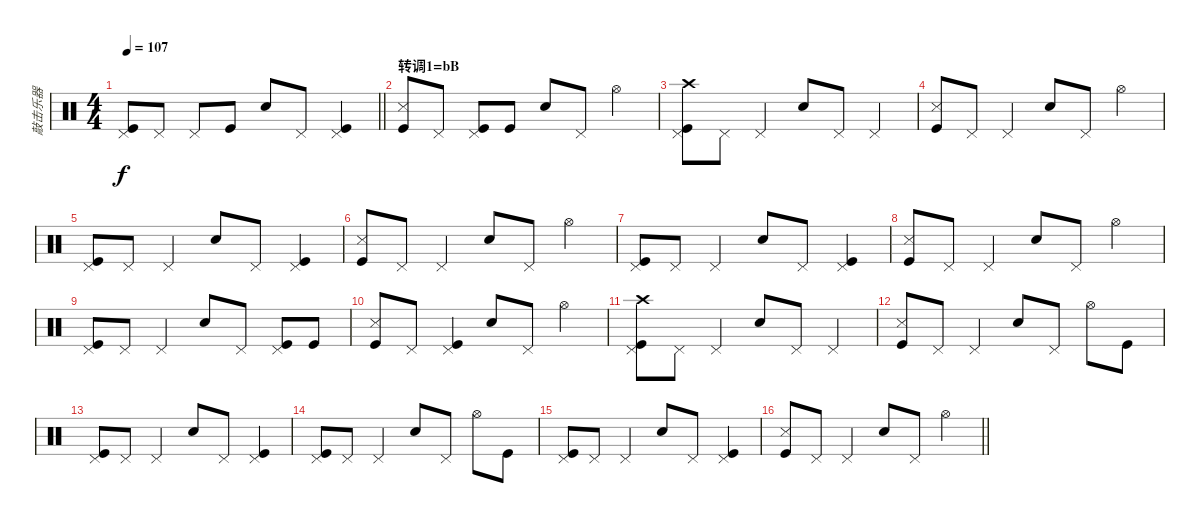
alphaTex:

\track ("敲击乐器" "敲击乐器") {instrument percussion}
\staff {score}
\articulation defaults
\ts (4 4)
\tempo 107
\clef neutral
\barLineRight lightlight
\ks c
("Kick (hit)" "Pedal Hi-Hat (hit)").8{dy f} "Pedal Hi-Hat (hit)".8 "Pedal Hi-Hat (hit)".8 "Kick (hit)".8 "Snare (hit) 2".8 "Pedal Hi-Hat (hit)".8 ("Kick (hit)" "Pedal Hi-Hat (hit)").4 |
\section ("" "转调1=bB")
("Kick (hit)" "Snare (side stick) 3").8 "Pedal Hi-Hat (hit)".8 ("Kick (hit)" "Pedal Hi-Hat (hit)").8 "Kick (hit)".8 "Snare (hit) 2".8 "Pedal Hi-Hat (hit)".8 "Hi-Hat (open)".4 |
("Crash high (hit)" "Kick (hit)" "Pedal Hi-Hat (hit)").8{volume 16} "Pedal Hi-Hat (hit)".8 "Pedal Hi-Hat (hit)".4 "Snare (hit) 2".8 "Pedal Hi-Hat (hit)".8 "Pedal Hi-Hat (hit)".4 |
("Kick (hit)" "Snare (side stick) 3").8 "Pedal Hi-Hat (hit)".8 "Pedal Hi-Hat (hit)".4 "Snare (hit) 2".8 "Pedal Hi-Hat (hit)".8 "Hi-Hat (open)".4 |
("Kick (hit)" "Pedal Hi-Hat (hit)").8 "Pedal Hi-Hat (hit)".8 "Pedal Hi-Hat (hit)".4 "Snare (hit) 2".8 "Pedal Hi-Hat (hit)".8 ("Kick (hit)" "Pedal Hi-Hat (hit)").4 |
("Kick (hit)" "Snare (side stick) 3").8 "Pedal Hi-Hat (hit)".8 "Pedal Hi-Hat (hit)".4 "Snare (hit) 2".8 "Pedal Hi-Hat (hit)".8 "Hi-Hat (open)".4 |
("Kick (hit)" "Pedal Hi-Hat (hit)").8 "Pedal Hi-Hat (hit)".8 "Pedal Hi-Hat (hit)".4 "Snare (hit) 2".8 "Pedal Hi-Hat (hit)".8 ("Kick (hit)" "Pedal Hi-Hat (hit)").4 |
("Kick (hit)" "Snare (side stick) 3").8 "Pedal Hi-Hat (hit)".8 "Pedal Hi-Hat (hit)".4 "Snare (hit) 2".8 "Pedal Hi-Hat (hit)".8 "Hi-Hat (open)".4 |
("Kick (hit)" "Pedal Hi-Hat (hit)").8 "Pedal Hi-Hat (hit)".8 "Pedal Hi-Hat (hit)".4 "Snare (hit) 2".8 "Pedal Hi-Hat (hit)".8 ("Kick (hit)" "Pedal Hi-Hat (hit)").8 "Kick (hit)".8 |
("Kick (hit)" "Snare (side stick) 3").8 "Pedal Hi-Hat (hit)".8 ("Kick (hit)" "Pedal Hi-Hat (hit)").4 "Snare (hit) 2".8 "Pedal Hi-Hat (hit)".8 "Hi-Hat (open)".4 |
("Crash high (hit)" "Kick (hit)" "Pedal Hi-Hat (hit)").8 "Pedal Hi-Hat (hit)".8 "Pedal Hi-Hat (hit)".4 "Snare (hit) 2".8 "Pedal Hi-Hat (hit)".8 "Pedal Hi-Hat (hit)".4 |
("Kick (hit)" "Snare (side stick) 3").8 "Pedal Hi-Hat (hit)".8 "Pedal Hi-Hat (hit)".4 "Snare (hit) 2".8 "Pedal Hi-Hat (hit)".8 "Hi-Hat (open)".8 "Kick (hit)".8 |
("Kick (hit)" "Pedal Hi-Hat (hit)").8 "Pedal Hi-Hat (hit)".8 "Pedal Hi-Hat (hit)".4 "Snare (hit) 2".8 "Pedal Hi-Hat (hit)".8 ("Kick (hit)" "Pedal Hi-Hat (hit)").4 |
("Kick (hit)" "Pedal Hi-Hat (hit)").8 "Pedal Hi-Hat (hit)".8 "Pedal Hi-Hat (hit)".4 "Snare (hit) 2".8 "Pedal Hi-Hat (hit)".8 "Hi-Hat (open)".8 "Kick (hit)".8 |
("Kick (hit)" "Pedal Hi-Hat (hit)").8 "Pedal Hi-Hat (hit)".8 "Pedal Hi-Hat (hit)".4 "Snare (hit) 2".8 "Pedal Hi-Hat (hit)".8 ("Kick (hit)" "Pedal Hi-Hat (hit)").4 |
\barLineRight lightlight
("Kick (hit)" "Snare (side stick) 3").8 "Pedal Hi-Hat (hit)".8 "Pedal Hi-Hat (hit)".4 "Snare (hit) 2".8 "Pedal Hi-Hat (hit)".8 "Hi-Hat (open)".4
